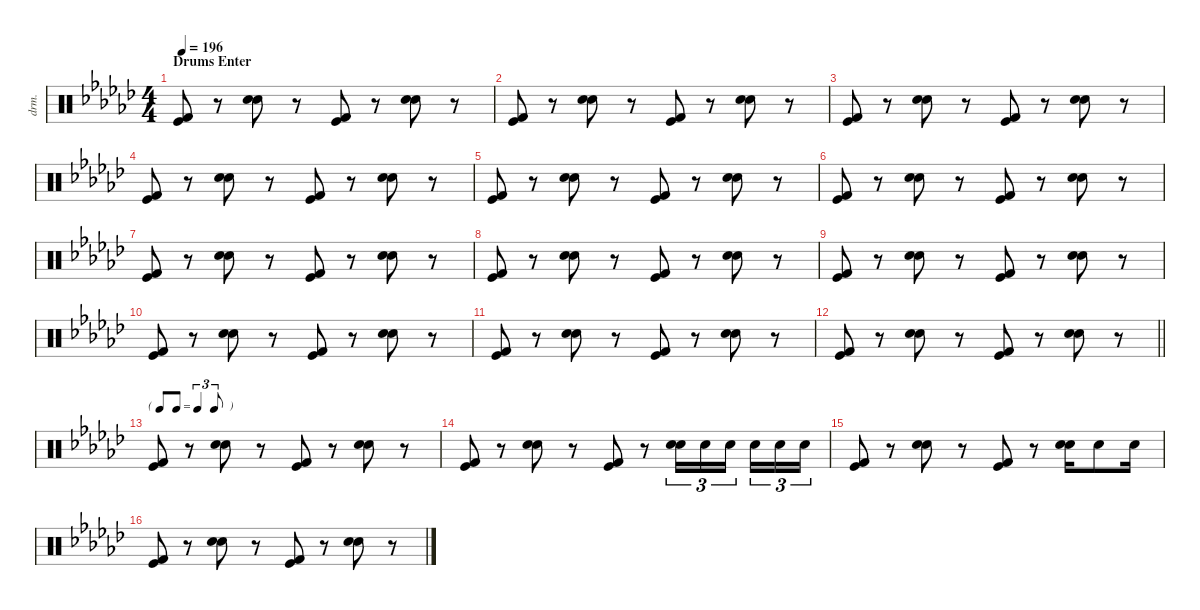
\defaultSystemsLayout 4
\hideDynamics
\bracketExtendMode nobrackets
\otherSystemsTrackNameOrientation horizontal
\track ("Percussions" "drm.") {defaultSystemsLayout 4 instrument percussion}
\staff {score}
\articulation defaults
\ts (4 4)
\section ("" "Drums Enter")
\tempo 196
\clef neutral
\ks gb
("Kick (hit) 2"{acc forcenatural} "Kick (hit)"{acc forcenatural}).8{dy f beam Up} r.8{beam Up} ("Snare (hit) 2"{acc forcenatural} "Snare (hit) 2"{acc forcenatural}).8{beam Down} r.8{beam Down} ("Kick (hit) 2"{acc forcenatural} "Kick (hit)"{acc forcenatural}).8{beam Up} r.8{beam Up} ("Snare (hit) 2"{acc forcenatural} "Snare (hit) 2"{acc forcenatural}).8{beam Down} r.8{beam Down} |
("Kick (hit) 2"{acc forcenatural} "Kick (hit)"{acc forcenatural}).8{beam Up} r.8{beam Up} ("Snare (hit) 2"{acc forcenatural} "Snare (hit) 2"{acc forcenatural}).8{beam Down} r.8{beam Down} ("Kick (hit) 2"{acc forcenatural} "Kick (hit)"{acc forcenatural}).8{beam Up} r.8{beam Up} ("Snare (hit) 2"{acc forcenatural} "Snare (hit) 2"{acc forcenatural}).8{beam Down} r.8{beam Down} |
("Kick (hit) 2"{acc forcenatural} "Kick (hit)"{acc forcenatural}).8{beam Up} r.8{beam Up} ("Snare (hit) 2"{acc forcenatural} "Snare (hit) 2"{acc forcenatural}).8{beam Down} r.8{beam Down} ("Kick (hit) 2"{acc forcenatural} "Kick (hit)"{acc forcenatural}).8{beam Up} r.8{beam Up} ("Snare (hit) 2"{acc forcenatural} "Snare (hit) 2"{acc forcenatural}).8{beam Down} r.8{beam Down} |
("Kick (hit) 2"{acc forcenatural} "Kick (hit)"{acc forcenatural}).8{beam Up} r.8{beam Up} ("Snare (hit) 2"{acc forcenatural} "Snare (hit) 2"{acc forcenatural}).8{beam Down} r.8{beam Down} ("Kick (hit) 2"{acc forcenatural} "Kick (hit)"{acc forcenatural}).8{beam Up} r.8{beam Up} ("Snare (hit) 2"{acc forcenatural} "Snare (hit) 2"{acc forcenatural}).8{beam Down} r.8{beam Down} |
("Kick (hit) 2"{acc forcenatural} "Kick (hit)"{acc forcenatural}).8{beam Up} r.8{beam Up} ("Snare (hit) 2"{acc forcenatural} "Snare (hit) 2"{acc forcenatural}).8{beam Down} r.8{beam Down} ("Kick (hit) 2"{acc forcenatural} "Kick (hit)"{acc forcenatural}).8{beam Up} r.8{beam Up} ("Snare (hit) 2"{acc forcenatural} "Snare (hit) 2"{acc forcenatural}).8{beam Down} r.8{beam Down} |
("Kick (hit) 2"{acc forcenatural} "Kick (hit)"{acc forcenatural}).8{beam Up} r.8{beam Up} ("Snare (hit) 2"{acc forcenatural} "Snare (hit) 2"{acc forcenatural}).8{beam Down} r.8{beam Down} ("Kick (hit) 2"{acc forcenatural} "Kick (hit)"{acc forcenatural}).8{beam Up} r.8{beam Up} ("Snare (hit) 2"{acc forcenatural} "Snare (hit) 2"{acc forcenatural}).8{beam Down} r.8{beam Down} |
("Kick (hit) 2"{acc forcenatural} "Kick (hit)"{acc forcenatural}).8{beam Up} r.8{beam Up} ("Snare (hit) 2"{acc forcenatural} "Snare (hit) 2"{acc forcenatural}).8{beam Down} r.8{beam Down} ("Kick (hit) 2"{acc forcenatural} "Kick (hit)"{acc forcenatural}).8{beam Up} r.8{beam Up} ("Snare (hit) 2"{acc forcenatural} "Snare (hit) 2"{acc forcenatural}).8{beam Down} r.8{beam Down} |
("Kick (hit) 2"{acc forcenatural} "Kick (hit)"{acc forcenatural}).8{beam Up} r.8{beam Up} ("Snare (hit) 2"{acc forcenatural} "Snare (hit) 2"{acc forcenatural}).8{beam Down} r.8{beam Down} ("Kick (hit) 2"{acc forcenatural} "Kick (hit)"{acc forcenatural}).8{beam Up} r.8{beam Up} ("Snare (hit) 2"{acc forcenatural} "Snare (hit) 2"{acc forcenatural}).8{beam Down} r.8{beam Down} |
("Kick (hit) 2"{acc forcenatural} "Kick (hit)"{acc forcenatural}).8{beam Up} r.8{beam Up} ("Snare (hit) 2"{acc forcenatural} "Snare (hit) 2"{acc forcenatural}).8{beam Down} r.8{beam Down} ("Kick (hit) 2"{acc forcenatural} "Kick (hit)"{acc forcenatural}).8{beam Up} r.8{beam Up} ("Snare (hit) 2"{acc forcenatural} "Snare (hit) 2"{acc forcenatural}).8{beam Down} r.8{beam Down} |
("Kick (hit) 2"{acc forcenatural} "Kick (hit)"{acc forcenatural}).8{beam Up} r.8{beam Up} ("Snare (hit) 2"{acc forcenatural} "Snare (hit) 2"{acc forcenatural}).8{beam Down} r.8{beam Down} ("Kick (hit) 2"{acc forcenatural} "Kick (hit)"{acc forcenatural}).8{beam Up} r.8{beam Up} ("Snare (hit) 2"{acc forcenatural} "Snare (hit) 2"{acc forcenatural}).8{beam Down} r.8{beam Down} |
("Kick (hit) 2"{acc forcenatural} "Kick (hit)"{acc forcenatural}).8{beam Up} r.8{beam Up} ("Snare (hit) 2"{acc forcenatural} "Snare (hit) 2"{acc forcenatural}).8{beam Down} r.8{beam Down} ("Kick (hit) 2"{acc forcenatural} "Kick (hit)"{acc forcenatural}).8{beam Up} r.8{beam Up} ("Snare (hit) 2"{acc forcenatural} "Snare (hit) 2"{acc forcenatural}).8{beam Down} r.8{beam Down} |
\barLineRight lightlight
("Kick (hit) 2"{acc forcenatural} "Kick (hit)"{acc forcenatural}).8{beam Up} r.8{beam Up} ("Snare (hit) 2"{acc forcenatural} "Snare (hit) 2"{acc forcenatural}).8{beam Down} r.8{beam Down} ("Kick (hit) 2"{acc forcenatural} "Kick (hit)"{acc forcenatural}).8{beam Up} r.8{beam Up} ("Snare (hit) 2"{acc forcenatural} "Snare (hit) 2"{acc forcenatural}).8{beam Down} r.8{beam Down} |
\tf triplet8th
("Kick (hit) 2"{acc forcenatural} "Kick (hit)"{acc forcenatural}).8{beam Up} r.8{beam Up} ("Snare (hit) 2"{acc forcenatural} "Snare (hit) 2"{acc forcenatural}).8{beam Down} r.8{beam Down} ("Kick (hit) 2"{acc forcenatural} "Kick (hit)"{acc forcenatural}).8{beam Up} r.8{beam Up} ("Snare (hit) 2"{acc forcenatural} "Snare (hit) 2"{acc forcenatural}).8{beam Down} r.8{beam Down} |
("Kick (hit) 2"{acc forcenatural} "Kick (hit)"{acc forcenatural}).8{beam Up} r.8{beam Up} ("Snare (hit) 2"{acc forcenatural} "Snare (hit) 2"{acc forcenatural}).8{beam Down} r.8{beam Down} ("Kick (hit) 2"{acc forcenatural} "Kick (hit)"{acc forcenatural}).8{beam Up} r.8{beam Up} ("Hand Clap (hit)"{acc forcenatural} "Snare (hit) 2"{acc forcenatural}).16{tu (3 2) beam Down} "Hand Clap (hit)"{acc forcenatural}.16{tu (3 2) beam Down} "Hand Clap (hit)"{acc forcenatural}.16{tu (3 2) beam Down} "Hand Clap (hit)"{acc forcenatural}.16{tu (3 2) beam Down} "Hand Clap (hit)"{acc forcenatural}.16{tu (3 2) beam Down} "Hand Clap (hit)"{acc forcenatural}.16{tu (3 2) beam Down} |
("Kick (hit) 2"{acc forcenatural} "Kick (hit)"{acc forcenatural}).8{beam Up} r.8{beam Up} ("Snare (hit) 2"{acc forcenatural} "Snare (hit) 2"{acc forcenatural}).8{beam Down} r.8{beam Down} ("Kick (hit) 2"{acc forcenatural} "Kick (hit)"{acc forcenatural}).8{beam Up} r.8{beam Up} ("Snare (hit) 2"{acc forcenatural} "Snare (hit) 2"{acc forcenatural}).16{beam Down} "Hand Clap (hit)"{acc forcenatural}.8{beam Down} "Hand Clap (hit)"{acc forcenatural}.16{beam Down} |
("Kick (hit) 2"{acc forcenatural} "Kick (hit)"{acc forcenatural}).8{beam Up} r.8{beam Up} ("Snare (hit) 2"{acc forcenatural} "Snare (hit) 2"{acc forcenatural}).8{beam Down} r.8{beam Down} ("Kick (hit) 2"{acc forcenatural} "Kick (hit)"{acc forcenatural}).8{beam Up} r.8{beam Up} ("Snare (hit) 2"{acc forcenatural} "Snare (hit) 2"{acc forcenatural}).8{beam Down} r.8{beam Down}
